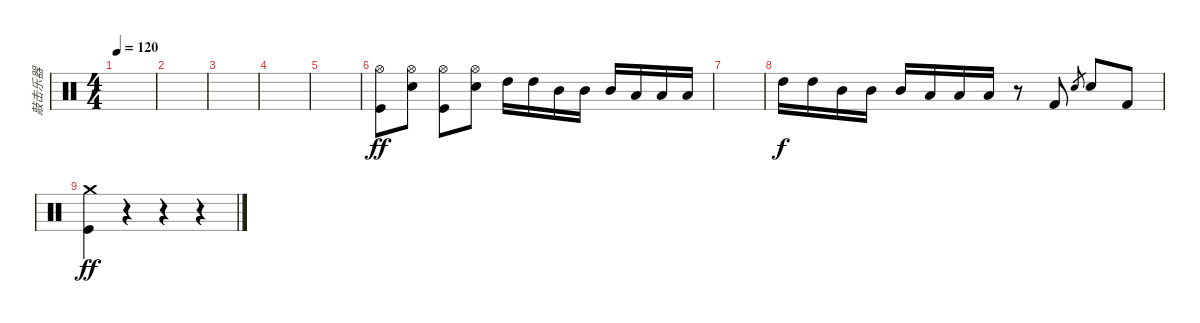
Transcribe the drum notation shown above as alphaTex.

\track ("敲击乐器" "敲击乐器") {instrument percussion}
\staff {score}
\articulation defaults
\ts (4 4)
\tempo 120
\clef neutral
\ks c
|
|
|
|
|
("Hi-Hat (open)" "Kick (hit)").8{dy ff} ("Hi-Hat (open)" "Electric Snare (hit)").8 ("Hi-Hat (open)" "Kick (hit)").8 ("Hi-Hat (open)" "Electric Snare (hit)").8 "High Tom (hit)".16 "High Tom (hit)".16 "Mid Tom (hit)".16 "Mid Tom (hit)".16 "Mid Tom (hit)".16 "Low Tom (hit)".16 "Low Tom (hit)".16 "Low Floor Tom (hit)".16 |
|
"High Tom (hit)".16{dy f} "High Tom (hit)".16 "Mid Tom (hit)".16 "Mid Tom (hit)".16 "Mid Tom (hit)".16 "Low Tom (hit)".16 "Low Tom (hit)".16 "Low Floor Tom (hit)".16 r.8 "Kick (hit) 2".8 "Electric Snare (hit)".8{gr} "Electric Snare (hit)".8 "Kick (hit) 2".8 |
("Crash medium (hit)" "Kick (hit)").4{dy ff} r.4 r.4 r.4
